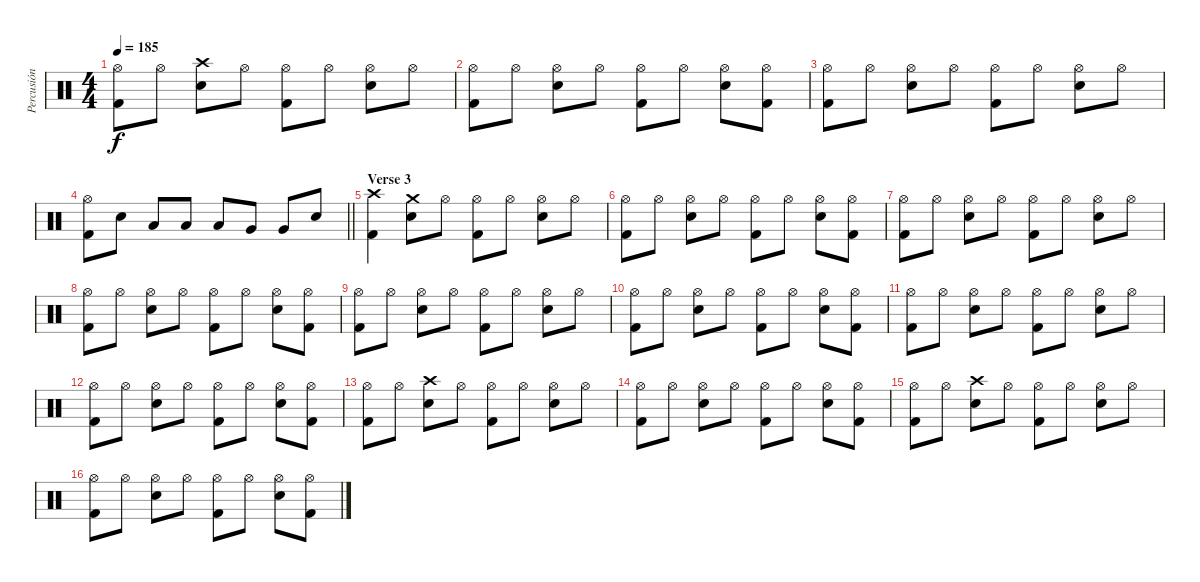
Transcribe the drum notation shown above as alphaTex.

\track ("Percusión" "Percusión") {instrument percussion}
\staff {score}
\articulation defaults
\ts (4 4)
\tempo 185
\clef neutral
\ks c
("Hi-Hat (open)" "Kick (hit) 2").8{dy f} "Hi-Hat (open)".8 ("Crash high (hit)" "Electric Snare (hit)").8 "Hi-Hat (open)".8 ("Hi-Hat (open)" "Kick (hit) 2").8 "Hi-Hat (open)".8 ("Hi-Hat (open)" "Electric Snare (hit)").8 "Hi-Hat (open)".8 |
("Hi-Hat (open)" "Kick (hit) 2").8 "Hi-Hat (open)".8 ("Hi-Hat (open)" "Electric Snare (hit)").8 "Hi-Hat (open)".8 ("Hi-Hat (open)" "Kick (hit) 2").8 "Hi-Hat (open)".8 ("Hi-Hat (open)" "Electric Snare (hit)").8 ("Hi-Hat (open)" "Kick (hit) 2").8 |
("Hi-Hat (open)" "Kick (hit) 2").8 "Hi-Hat (open)".8 ("Hi-Hat (open)" "Electric Snare (hit)").8 "Hi-Hat (open)".8 ("Hi-Hat (open)" "Kick (hit) 2").8 "Hi-Hat (open)".8 ("Hi-Hat (open)" "Electric Snare (hit)").8 "Hi-Hat (open)".8 |
\barLineRight lightlight
("Hi-Hat (open)" "Kick (hit) 2").8 "Electric Snare (hit)".8 "Low Tom (hit)".8 "Low Tom (hit)".8 "Low Tom (hit)".8 "Very Low Tom (hit)".8 "Very Low Tom (hit)".8 "Electric Snare (hit)".8 |
\section ("" "Verse 3")
("Crash high (hit)" "Kick (hit) 2").4 ("Crash medium (hit)" "Electric Snare (hit)").8 "Hi-Hat (open)".8 ("Hi-Hat (open)" "Kick (hit) 2").8 "Hi-Hat (open)".8 ("Hi-Hat (open)" "Electric Snare (hit)").8 "Hi-Hat (open)".8 |
("Hi-Hat (open)" "Kick (hit) 2").8 "Hi-Hat (open)".8 ("Hi-Hat (open)" "Electric Snare (hit)").8 "Hi-Hat (open)".8 ("Hi-Hat (open)" "Kick (hit) 2").8 "Hi-Hat (open)".8 ("Hi-Hat (open)" "Electric Snare (hit)").8 ("Hi-Hat (open)" "Kick (hit) 2").8 |
("Hi-Hat (open)" "Kick (hit) 2").8 "Hi-Hat (open)".8 ("Hi-Hat (open)" "Electric Snare (hit)").8 "Hi-Hat (open)".8 ("Hi-Hat (open)" "Kick (hit) 2").8 "Hi-Hat (open)".8 ("Hi-Hat (open)" "Electric Snare (hit)").8 "Hi-Hat (open)".8 |
("Hi-Hat (open)" "Kick (hit) 2").8 "Hi-Hat (open)".8 ("Hi-Hat (open)" "Electric Snare (hit)").8 "Hi-Hat (open)".8 ("Hi-Hat (open)" "Kick (hit) 2").8 "Hi-Hat (open)".8 ("Hi-Hat (open)" "Electric Snare (hit)").8 ("Hi-Hat (open)" "Kick (hit) 2").8 |
("Hi-Hat (open)" "Kick (hit) 2").8 "Hi-Hat (open)".8 ("Hi-Hat (open)" "Electric Snare (hit)").8 "Hi-Hat (open)".8 ("Hi-Hat (open)" "Kick (hit) 2").8 "Hi-Hat (open)".8 ("Hi-Hat (open)" "Electric Snare (hit)").8 "Hi-Hat (open)".8 |
("Hi-Hat (open)" "Kick (hit) 2").8 "Hi-Hat (open)".8 ("Hi-Hat (open)" "Electric Snare (hit)").8 "Hi-Hat (open)".8 ("Hi-Hat (open)" "Kick (hit) 2").8 "Hi-Hat (open)".8 ("Hi-Hat (open)" "Electric Snare (hit)").8 ("Hi-Hat (open)" "Kick (hit) 2").8 |
("Hi-Hat (open)" "Kick (hit) 2").8 "Hi-Hat (open)".8 ("Hi-Hat (open)" "Electric Snare (hit)").8 "Hi-Hat (open)".8 ("Hi-Hat (open)" "Kick (hit) 2").8 "Hi-Hat (open)".8 ("Hi-Hat (open)" "Electric Snare (hit)").8 "Hi-Hat (open)".8 |
("Hi-Hat (open)" "Kick (hit) 2").8 "Hi-Hat (open)".8 ("Hi-Hat (open)" "Electric Snare (hit)").8 "Hi-Hat (open)".8 ("Hi-Hat (open)" "Kick (hit) 2").8 "Hi-Hat (open)".8 ("Hi-Hat (open)" "Electric Snare (hit)").8 ("Hi-Hat (open)" "Kick (hit) 2").8 |
("Hi-Hat (open)" "Kick (hit) 2").8 "Hi-Hat (open)".8 ("Crash high (hit)" "Electric Snare (hit)").8 "Hi-Hat (open)".8 ("Hi-Hat (open)" "Kick (hit) 2").8 "Hi-Hat (open)".8 ("Hi-Hat (open)" "Electric Snare (hit)").8 "Hi-Hat (open)".8 |
("Hi-Hat (open)" "Kick (hit) 2").8 "Hi-Hat (open)".8 ("Hi-Hat (open)" "Electric Snare (hit)").8 "Hi-Hat (open)".8 ("Hi-Hat (open)" "Kick (hit) 2").8 "Hi-Hat (open)".8 ("Hi-Hat (open)" "Electric Snare (hit)").8 ("Hi-Hat (open)" "Kick (hit) 2").8 |
("Hi-Hat (open)" "Kick (hit) 2").8 "Hi-Hat (open)".8 ("Crash high (hit)" "Electric Snare (hit)").8 "Hi-Hat (open)".8 ("Hi-Hat (open)" "Kick (hit) 2").8 "Hi-Hat (open)".8 ("Hi-Hat (open)" "Electric Snare (hit)").8 "Hi-Hat (open)".8 |
("Hi-Hat (open)" "Kick (hit) 2").8 "Hi-Hat (open)".8 ("Hi-Hat (open)" "Electric Snare (hit)").8 "Hi-Hat (open)".8 ("Hi-Hat (open)" "Kick (hit) 2").8 "Hi-Hat (open)".8 ("Hi-Hat (open)" "Electric Snare (hit)").8 ("Hi-Hat (open)" "Kick (hit) 2").8
